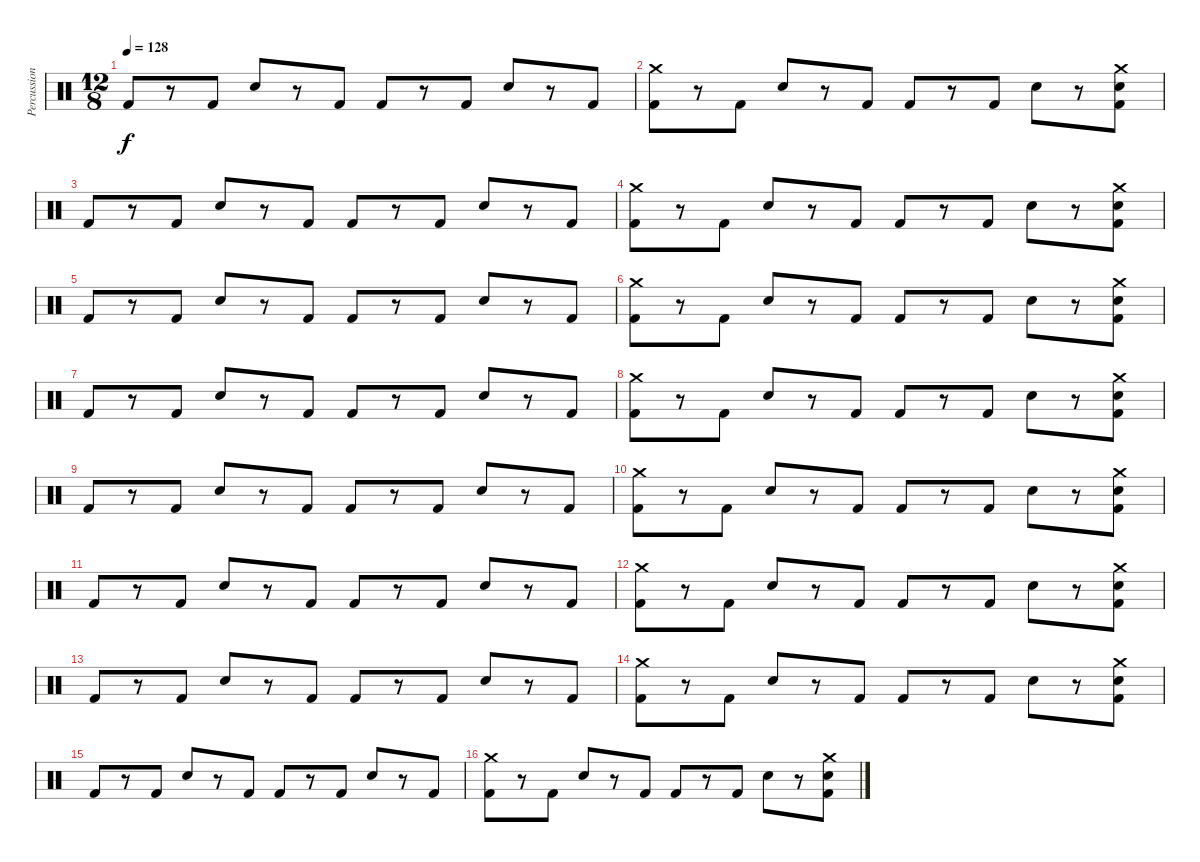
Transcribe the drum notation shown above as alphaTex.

\track ("Percussion" "Percussion") {instrument percussion}
\staff {score}
\articulation defaults
\ts (12 8)
\tempo 128
\clef neutral
\ks c "Kick (hit) 2".8{dy f}
r.8 "Kick (hit) 2".8 "Snare (hit) 2".8 r.8 "Kick (hit) 2".8 "Kick (hit) 2".8 r.8 "Kick (hit) 2".8 "Snare (hit) 2".8 r.8 "Kick (hit) 2".8 |
("Crash medium (hit)" "Kick (hit) 2").8 r.8 "Kick (hit) 2".8 "Snare (hit) 2".8 r.8 "Kick (hit) 2".8 "Kick (hit) 2".8 r.8 "Kick (hit) 2".8 "Snare (hit) 2".8 r.8 ("Crash medium (hit)" "Snare (hit) 2" "Kick (hit) 2").8 |
"Kick (hit) 2".8 r.8 "Kick (hit) 2".8 "Snare (hit) 2".8 r.8 "Kick (hit) 2".8 "Kick (hit) 2".8 r.8 "Kick (hit) 2".8 "Snare (hit) 2".8 r.8 "Kick (hit) 2".8 |
("Crash medium (hit)" "Kick (hit) 2").8 r.8 "Kick (hit) 2".8 "Snare (hit) 2".8 r.8 "Kick (hit) 2".8 "Kick (hit) 2".8 r.8 "Kick (hit) 2".8 "Snare (hit) 2".8 r.8 ("Crash medium (hit)" "Snare (hit) 2" "Kick (hit) 2").8 |
"Kick (hit) 2".8 r.8 "Kick (hit) 2".8 "Snare (hit) 2".8 r.8 "Kick (hit) 2".8 "Kick (hit) 2".8 r.8 "Kick (hit) 2".8 "Snare (hit) 2".8 r.8 "Kick (hit) 2".8 |
("Crash medium (hit)" "Kick (hit) 2").8 r.8 "Kick (hit) 2".8 "Snare (hit) 2".8 r.8 "Kick (hit) 2".8 "Kick (hit) 2".8 r.8 "Kick (hit) 2".8 "Snare (hit) 2".8 r.8 ("Crash medium (hit)" "Snare (hit) 2" "Kick (hit) 2").8 |
"Kick (hit) 2".8 r.8 "Kick (hit) 2".8 "Snare (hit) 2".8 r.8 "Kick (hit) 2".8 "Kick (hit) 2".8 r.8 "Kick (hit) 2".8 "Snare (hit) 2".8 r.8 "Kick (hit) 2".8 |
("Crash medium (hit)" "Kick (hit) 2").8 r.8 "Kick (hit) 2".8 "Snare (hit) 2".8 r.8 "Kick (hit) 2".8 "Kick (hit) 2".8 r.8 "Kick (hit) 2".8 "Snare (hit) 2".8 r.8 ("Crash medium (hit)" "Snare (hit) 2" "Kick (hit) 2").8 |
"Kick (hit) 2".8 r.8 "Kick (hit) 2".8 "Snare (hit) 2".8 r.8 "Kick (hit) 2".8 "Kick (hit) 2".8 r.8 "Kick (hit) 2".8 "Snare (hit) 2".8 r.8 "Kick (hit) 2".8 |
("Crash medium (hit)" "Kick (hit) 2").8 r.8 "Kick (hit) 2".8 "Snare (hit) 2".8 r.8 "Kick (hit) 2".8 "Kick (hit) 2".8 r.8 "Kick (hit) 2".8 "Snare (hit) 2".8 r.8 ("Crash medium (hit)" "Snare (hit) 2" "Kick (hit) 2").8 |
"Kick (hit) 2".8 r.8 "Kick (hit) 2".8 "Snare (hit) 2".8 r.8 "Kick (hit) 2".8 "Kick (hit) 2".8 r.8 "Kick (hit) 2".8 "Snare (hit) 2".8 r.8 "Kick (hit) 2".8 |
("Crash medium (hit)" "Kick (hit) 2").8 r.8 "Kick (hit) 2".8 "Snare (hit) 2".8 r.8 "Kick (hit) 2".8 "Kick (hit) 2".8 r.8 "Kick (hit) 2".8 "Snare (hit) 2".8 r.8 ("Crash medium (hit)" "Snare (hit) 2" "Kick (hit) 2").8 |
"Kick (hit) 2".8 r.8 "Kick (hit) 2".8 "Snare (hit) 2".8 r.8 "Kick (hit) 2".8 "Kick (hit) 2".8 r.8 "Kick (hit) 2".8 "Snare (hit) 2".8 r.8 "Kick (hit) 2".8 |
("Crash medium (hit)" "Kick (hit) 2").8 r.8 "Kick (hit) 2".8 "Snare (hit) 2".8 r.8 "Kick (hit) 2".8 "Kick (hit) 2".8 r.8 "Kick (hit) 2".8 "Snare (hit) 2".8 r.8 ("Crash medium (hit)" "Snare (hit) 2" "Kick (hit) 2").8 |
"Kick (hit) 2".8 r.8 "Kick (hit) 2".8 "Snare (hit) 2".8 r.8 "Kick (hit) 2".8 "Kick (hit) 2".8 r.8 "Kick (hit) 2".8 "Snare (hit) 2".8 r.8 "Kick (hit) 2".8 |
("Crash medium (hit)" "Kick (hit) 2").8 r.8 "Kick (hit) 2".8 "Snare (hit) 2".8 r.8 "Kick (hit) 2".8 "Kick (hit) 2".8 r.8 "Kick (hit) 2".8 "Snare (hit) 2".8 r.8 ("Crash medium (hit)" "Snare (hit) 2" "Kick (hit) 2").8
